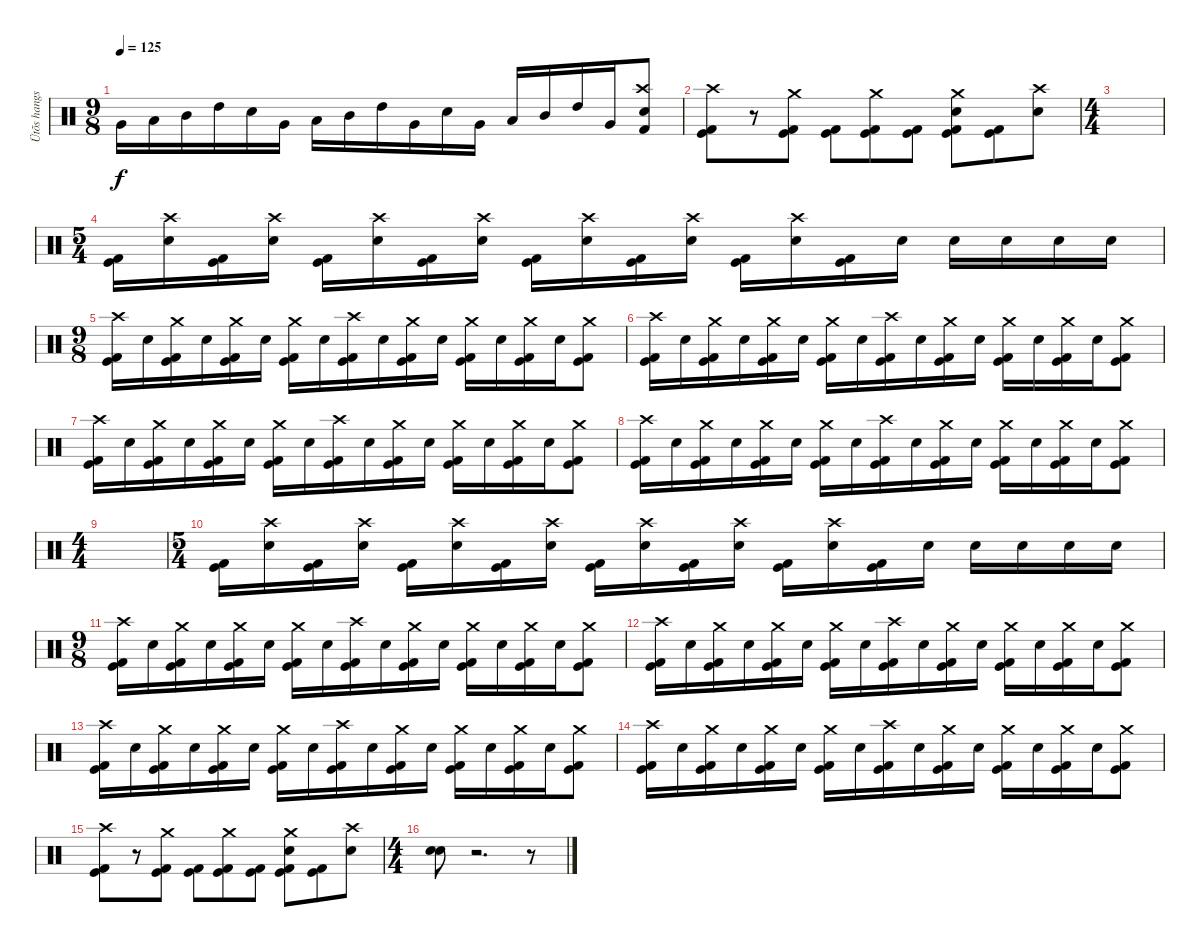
\track ("Ütõs hangszer" "Ütõs hangs") {instrument percussion}
\staff {score}
\articulation defaults
\ts (9 8)
\tempo 125
\clef neutral
\ks c "Very Low Tom (hit)".16{dy f} "Low Tom (hit)".16 "Mid Tom (hit)".16 "High Tom (hit)".16 "Snare (hit) 2".16 "Very Low Tom (hit)".16 "Low Tom (hit)".16 "Mid Tom (hit)".16 "High Tom (hit)".16 "Very Low Tom (hit)".16 "Snare (hit) 2".16 "Very Low Tom (hit)".16 "Low Tom (hit)".16 "Mid Tom (hit)".16 "High Tom (hit)".16 "Very Low Tom (hit)".16
("Crash high (hit)" "Snare (hit) 2" "Kick (hit) 2").8 |
("Crash high (hit)" "Kick (hit)" "Kick (hit) 2").8 r.8 ("Crash medium (hit)" "Kick (hit)" "Kick (hit) 2").8 ("Kick (hit)" "Kick (hit) 2").8 ("Crash medium (hit)" "Kick (hit)" "Kick (hit) 2").8 ("Kick (hit)" "Kick (hit) 2").8 ("Crash medium (hit)" "Snare (hit) 2" "Kick (hit)" "Kick (hit) 2").8 ("Kick (hit)" "Kick (hit) 2").8 ("Crash high (hit)" "Snare (hit) 2").8 |
\ts (4 4)
|
\ts (5 4)
("Kick (hit)" "Kick (hit) 2").16 ("Crash high (hit)" "Snare (hit) 2").16 ("Kick (hit)" "Kick (hit) 2").16 ("Crash high (hit)" "Snare (hit) 2").16 ("Kick (hit)" "Kick (hit) 2").16 ("Crash high (hit)" "Snare (hit) 2").16 ("Kick (hit)" "Kick (hit) 2").16 ("Crash high (hit)" "Snare (hit) 2").16 ("Kick (hit)" "Kick (hit) 2").16 ("Crash high (hit)" "Snare (hit) 2").16 ("Kick (hit)" "Kick (hit) 2").16 ("Crash high (hit)" "Snare (hit) 2").16 ("Kick (hit)" "Kick (hit) 2").16 ("Crash high (hit)" "Snare (hit) 2").16 ("Kick (hit)" "Kick (hit) 2").16 "Snare (hit) 2".16 "Snare (hit) 2".16 "Snare (hit) 2".16 "Snare (hit) 2".16 "Snare (hit) 2".16 |
\ts (9 8)
("Crash high (hit)" "Kick (hit)" "Kick (hit) 2").16 "Snare (hit) 2".16 ("Crash medium (hit)" "Kick (hit)" "Kick (hit) 2").16 "Snare (hit) 2".16 ("Crash medium (hit)" "Kick (hit)" "Kick (hit) 2").16 "Snare (hit) 2".16 ("Crash medium (hit)" "Kick (hit)" "Kick (hit) 2").16 "Snare (hit) 2".16 ("Crash high (hit)" "Kick (hit)" "Kick (hit) 2").16 "Snare (hit) 2".16 ("Crash medium (hit)" "Kick (hit)" "Kick (hit) 2").16 "Snare (hit) 2".16 ("Crash medium (hit)" "Kick (hit)" "Kick (hit) 2").16 "Snare (hit) 2".16 ("Crash medium (hit)" "Kick (hit)" "Kick (hit) 2").16 "Snare (hit) 2".16 ("Crash medium (hit)" "Kick (hit)" "Kick (hit) 2").8 |
("Crash high (hit)" "Kick (hit)" "Kick (hit) 2").16 "Snare (hit) 2".16 ("Crash medium (hit)" "Kick (hit)" "Kick (hit) 2").16 "Snare (hit) 2".16 ("Crash medium (hit)" "Kick (hit)" "Kick (hit) 2").16 "Snare (hit) 2".16 ("Crash medium (hit)" "Kick (hit)" "Kick (hit) 2").16 "Snare (hit) 2".16 ("Crash high (hit)" "Kick (hit)" "Kick (hit) 2").16 "Snare (hit) 2".16 ("Crash medium (hit)" "Kick (hit)" "Kick (hit) 2").16 "Snare (hit) 2".16 ("Crash medium (hit)" "Kick (hit)" "Kick (hit) 2").16 "Snare (hit) 2".16 ("Crash medium (hit)" "Kick (hit)" "Kick (hit) 2").16 "Snare (hit) 2".16 ("Crash medium (hit)" "Kick (hit)" "Kick (hit) 2").8 |
("Crash high (hit)" "Kick (hit)" "Kick (hit) 2").16 "Snare (hit) 2".16 ("Crash medium (hit)" "Kick (hit)" "Kick (hit) 2").16 "Snare (hit) 2".16 ("Crash medium (hit)" "Kick (hit)" "Kick (hit) 2").16 "Snare (hit) 2".16 ("Crash medium (hit)" "Kick (hit)" "Kick (hit) 2").16 "Snare (hit) 2".16 ("Crash high (hit)" "Kick (hit)" "Kick (hit) 2").16 "Snare (hit) 2".16 ("Crash medium (hit)" "Kick (hit)" "Kick (hit) 2").16 "Snare (hit) 2".16 ("Crash medium (hit)" "Kick (hit)" "Kick (hit) 2").16 "Snare (hit) 2".16 ("Crash medium (hit)" "Kick (hit)" "Kick (hit) 2").16 "Snare (hit) 2".16 ("Crash medium (hit)" "Kick (hit)" "Kick (hit) 2").8 |
("Crash high (hit)" "Kick (hit)" "Kick (hit) 2").16 "Snare (hit) 2".16 ("Crash medium (hit)" "Kick (hit)" "Kick (hit) 2").16 "Snare (hit) 2".16 ("Crash medium (hit)" "Kick (hit)" "Kick (hit) 2").16 "Snare (hit) 2".16 ("Crash medium (hit)" "Kick (hit)" "Kick (hit) 2").16 "Snare (hit) 2".16 ("Crash high (hit)" "Kick (hit)" "Kick (hit) 2").16 "Snare (hit) 2".16 ("Crash medium (hit)" "Kick (hit)" "Kick (hit) 2").16 "Snare (hit) 2".16 ("Crash medium (hit)" "Kick (hit)" "Kick (hit) 2").16 "Snare (hit) 2".16 ("Crash medium (hit)" "Kick (hit)" "Kick (hit) 2").16 "Snare (hit) 2".16 ("Crash medium (hit)" "Kick (hit)" "Kick (hit) 2").8 |
\ts (4 4)
|
\ts (5 4)
("Kick (hit)" "Kick (hit) 2").16 ("Crash high (hit)" "Snare (hit) 2").16 ("Kick (hit)" "Kick (hit) 2").16 ("Crash high (hit)" "Snare (hit) 2").16 ("Kick (hit)" "Kick (hit) 2").16 ("Crash high (hit)" "Snare (hit) 2").16 ("Kick (hit)" "Kick (hit) 2").16 ("Crash high (hit)" "Snare (hit) 2").16 ("Kick (hit)" "Kick (hit) 2").16 ("Crash high (hit)" "Snare (hit) 2").16 ("Kick (hit)" "Kick (hit) 2").16 ("Crash high (hit)" "Snare (hit) 2").16 ("Kick (hit)" "Kick (hit) 2").16 ("Crash high (hit)" "Snare (hit) 2").16 ("Kick (hit)" "Kick (hit) 2").16 "Snare (hit) 2".16 "Snare (hit) 2".16 "Snare (hit) 2".16 "Snare (hit) 2".16 "Snare (hit) 2".16 |
\ts (9 8)
("Crash high (hit)" "Kick (hit)" "Kick (hit) 2").16 "Snare (hit) 2".16 ("Crash medium (hit)" "Kick (hit)" "Kick (hit) 2").16 "Snare (hit) 2".16 ("Crash medium (hit)" "Kick (hit)" "Kick (hit) 2").16 "Snare (hit) 2".16 ("Crash medium (hit)" "Kick (hit)" "Kick (hit) 2").16 "Snare (hit) 2".16 ("Crash high (hit)" "Kick (hit)" "Kick (hit) 2").16 "Snare (hit) 2".16 ("Crash medium (hit)" "Kick (hit)" "Kick (hit) 2").16 "Snare (hit) 2".16 ("Crash medium (hit)" "Kick (hit)" "Kick (hit) 2").16 "Snare (hit) 2".16 ("Crash medium (hit)" "Kick (hit)" "Kick (hit) 2").16 "Snare (hit) 2".16 ("Crash medium (hit)" "Kick (hit)" "Kick (hit) 2").8 |
("Crash high (hit)" "Kick (hit)" "Kick (hit) 2").16 "Snare (hit) 2".16 ("Crash medium (hit)" "Kick (hit)" "Kick (hit) 2").16 "Snare (hit) 2".16 ("Crash medium (hit)" "Kick (hit)" "Kick (hit) 2").16 "Snare (hit) 2".16 ("Crash medium (hit)" "Kick (hit)" "Kick (hit) 2").16 "Snare (hit) 2".16 ("Crash high (hit)" "Kick (hit)" "Kick (hit) 2").16 "Snare (hit) 2".16 ("Crash medium (hit)" "Kick (hit)" "Kick (hit) 2").16 "Snare (hit) 2".16 ("Crash medium (hit)" "Kick (hit)" "Kick (hit) 2").16 "Snare (hit) 2".16 ("Crash medium (hit)" "Kick (hit)" "Kick (hit) 2").16 "Snare (hit) 2".16 ("Crash medium (hit)" "Kick (hit)" "Kick (hit) 2").8 |
("Crash high (hit)" "Kick (hit)" "Kick (hit) 2").16 "Snare (hit) 2".16 ("Crash medium (hit)" "Kick (hit)" "Kick (hit) 2").16 "Snare (hit) 2".16 ("Crash medium (hit)" "Kick (hit)" "Kick (hit) 2").16 "Snare (hit) 2".16 ("Crash medium (hit)" "Kick (hit)" "Kick (hit) 2").16 "Snare (hit) 2".16 ("Crash high (hit)" "Kick (hit)" "Kick (hit) 2").16 "Snare (hit) 2".16 ("Crash medium (hit)" "Kick (hit)" "Kick (hit) 2").16 "Snare (hit) 2".16 ("Crash medium (hit)" "Kick (hit)" "Kick (hit) 2").16 "Snare (hit) 2".16 ("Crash medium (hit)" "Kick (hit)" "Kick (hit) 2").16 "Snare (hit) 2".16 ("Crash medium (hit)" "Kick (hit)" "Kick (hit) 2").8 |
("Crash high (hit)" "Kick (hit)" "Kick (hit) 2").16 "Snare (hit) 2".16 ("Crash medium (hit)" "Kick (hit)" "Kick (hit) 2").16 "Snare (hit) 2".16 ("Crash medium (hit)" "Kick (hit)" "Kick (hit) 2").16 "Snare (hit) 2".16 ("Crash medium (hit)" "Kick (hit)" "Kick (hit) 2").16 "Snare (hit) 2".16 ("Crash high (hit)" "Kick (hit)" "Kick (hit) 2").16 "Snare (hit) 2".16 ("Crash medium (hit)" "Kick (hit)" "Kick (hit) 2").16 "Snare (hit) 2".16 ("Crash medium (hit)" "Kick (hit)" "Kick (hit) 2").16 "Snare (hit) 2".16 ("Crash medium (hit)" "Kick (hit)" "Kick (hit) 2").16 "Snare (hit) 2".16 ("Crash medium (hit)" "Kick (hit)" "Kick (hit) 2").8 |
("Crash high (hit)" "Kick (hit)" "Kick (hit) 2").8 r.8 ("Crash medium (hit)" "Kick (hit)" "Kick (hit) 2").8 ("Kick (hit)" "Kick (hit) 2").8 ("Crash medium (hit)" "Kick (hit)" "Kick (hit) 2").8 ("Kick (hit)" "Kick (hit) 2").8 ("Crash medium (hit)" "Snare (hit) 2" "Kick (hit)" "Kick (hit) 2").8 ("Kick (hit)" "Kick (hit) 2").8 ("Crash high (hit)" "Snare (hit) 2").8 |
\ts (4 4)
("Electric Snare (hit)" "Snare (hit) 2").8 r.2{d} r.8
